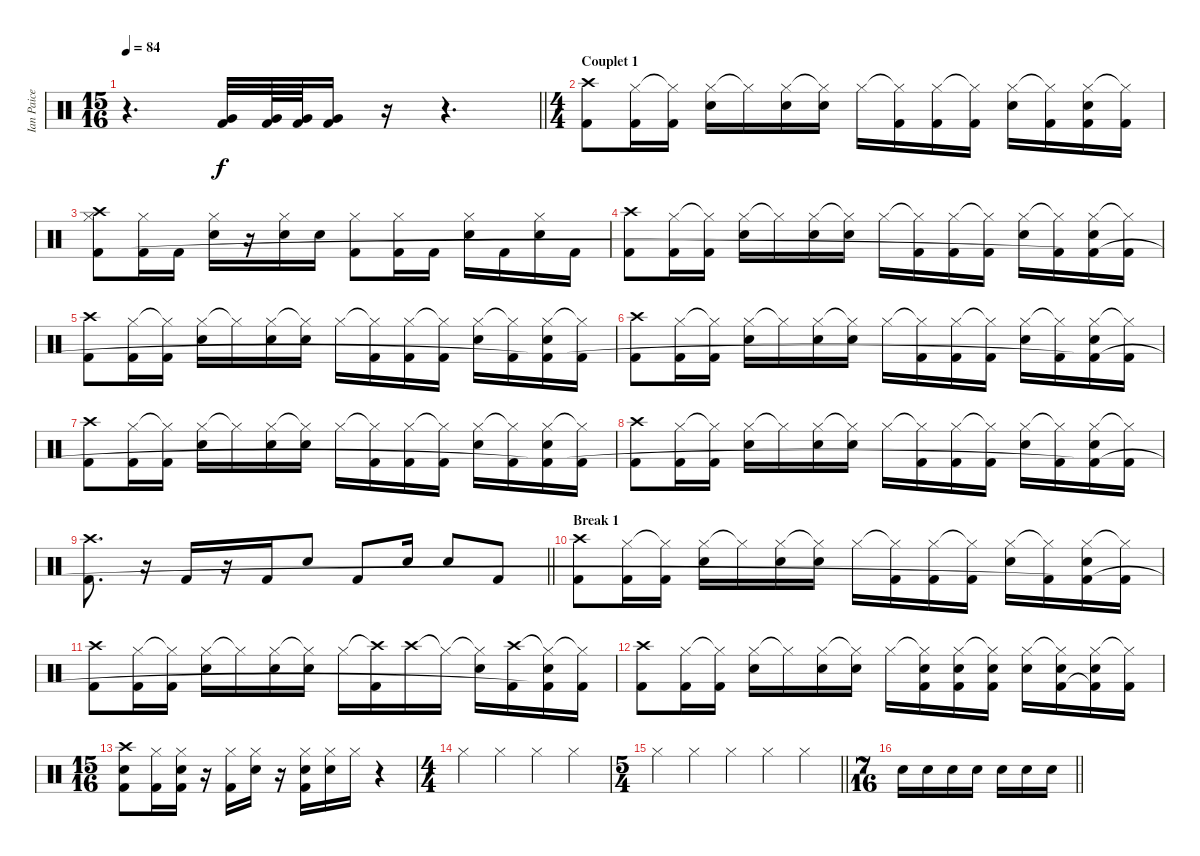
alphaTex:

\track ("Ian Paice" "Ian Paice") {instrument percussion}
\staff {score}
\articulation defaults
\ts (15 16)
\tempo 84
\clef neutral
\barLineRight lightlight
\ks c
r.4{d dy f} ("Very Low Tom (hit)" "Kick (hit) 2").32 ("Very Low Tom (hit)" "Kick (hit) 2").64 ("Very Low Tom (hit)" "Kick (hit) 2").64 ("Very Low Tom (hit)" "Kick (hit) 2").16 r.16 r.4{d} |
\ts (4 4)
\section ("" "Couplet 1")
("Crash high (hit)" "Kick (hit) 2").8 ("Hi-Hat (closed)" "Kick (hit) 2").16 ("Hi-Hat (closed)"{t} "Kick (hit) 2").16 ("Hi-Hat (closed)" "Snare (hit) 2").16 "Hi-Hat (closed)"{t}.16 ("Hi-Hat (closed)" "Snare (hit) 2").16 ("Hi-Hat (closed)"{t} "Snare (hit) 2").16 "Hi-Hat (closed)".16 ("Hi-Hat (closed)"{t} "Kick (hit) 2").16 ("Hi-Hat (closed)" "Kick (hit) 2").16 ("Hi-Hat (closed)"{t} "Kick (hit) 2").16 ("Hi-Hat (closed)" "Snare (hit) 2").16 ("Hi-Hat (closed)"{t} "Kick (hit) 2").16 ("Hi-Hat (closed)" "Snare (hit) 2" "Kick (hit) 2").16 ("Hi-Hat (closed)"{t} "Kick (hit) 2").16 |
("Hi-Hat (closed)" "Crash high (hit)" "Kick (hit) 2").8 ("Hi-Hat (closed)" "Kick (hit) 2").16 "Kick (hit) 2".16 ("Hi-Hat (closed)" "Snare (hit) 2").16 r.16 ("Hi-Hat (closed)" "Snare (hit) 2").16 "Snare (hit) 2".16 ("Hi-Hat (closed)" "Kick (hit) 2").8 ("Hi-Hat (closed)" "Kick (hit) 2").16 "Kick (hit) 2".16 ("Hi-Hat (closed)" "Snare (hit) 2").16 "Kick (hit) 2".16 ("Hi-Hat (closed)" "Snare (hit) 2").16 "Kick (hit) 2".16 |
("Crash high (hit)" "Kick (hit) 2").8 ("Hi-Hat (closed)" "Kick (hit) 2").16 ("Hi-Hat (closed)"{t} "Kick (hit) 2").16 ("Hi-Hat (closed)" "Snare (hit) 2").16 "Hi-Hat (closed)"{t}.16 ("Hi-Hat (closed)" "Snare (hit) 2").16 ("Hi-Hat (closed)"{t} "Snare (hit) 2").16 "Hi-Hat (closed)".16 ("Hi-Hat (closed)"{t} "Kick (hit) 2").16 ("Hi-Hat (closed)" "Kick (hit) 2").16 ("Hi-Hat (closed)"{t} "Kick (hit) 2").16 ("Hi-Hat (closed)" "Snare (hit) 2").16 ("Hi-Hat (closed)"{t} "Kick (hit) 2").16 ("Hi-Hat (closed)" "Snare (hit) 2" "Kick (hit) 2"{t}).16 ("Hi-Hat (closed)"{t} "Kick (hit) 2").16 |
("Crash high (hit)" "Kick (hit) 2").8 ("Hi-Hat (closed)" "Kick (hit) 2").16 ("Hi-Hat (closed)"{t} "Kick (hit) 2").16 ("Hi-Hat (closed)" "Snare (hit) 2").16 "Hi-Hat (closed)"{t}.16 ("Hi-Hat (closed)" "Snare (hit) 2").16 ("Hi-Hat (closed)"{t} "Snare (hit) 2").16 "Hi-Hat (closed)".16 ("Hi-Hat (closed)"{t} "Kick (hit) 2").16 ("Hi-Hat (closed)" "Kick (hit) 2").16 ("Hi-Hat (closed)"{t} "Kick (hit) 2").16 ("Hi-Hat (closed)" "Snare (hit) 2").16 ("Hi-Hat (closed)"{t} "Kick (hit) 2").16 ("Hi-Hat (closed)" "Snare (hit) 2" "Kick (hit) 2"{t}).16 ("Hi-Hat (closed)"{t} "Kick (hit) 2").16 |
("Crash high (hit)" "Kick (hit) 2").8 ("Hi-Hat (closed)" "Kick (hit) 2").16 ("Hi-Hat (closed)"{t} "Kick (hit) 2").16 ("Hi-Hat (closed)" "Snare (hit) 2").16 "Hi-Hat (closed)"{t}.16 ("Hi-Hat (closed)" "Snare (hit) 2").16 ("Hi-Hat (closed)"{t} "Snare (hit) 2").16 "Hi-Hat (closed)".16 ("Hi-Hat (closed)"{t} "Kick (hit) 2").16 ("Hi-Hat (closed)" "Kick (hit) 2").16 ("Hi-Hat (closed)"{t} "Kick (hit) 2").16 ("Hi-Hat (closed)" "Snare (hit) 2").16 ("Hi-Hat (closed)"{t} "Kick (hit) 2").16 ("Hi-Hat (closed)" "Snare (hit) 2" "Kick (hit) 2"{t}).16 ("Hi-Hat (closed)"{t} "Kick (hit) 2").16 |
("Crash high (hit)" "Kick (hit) 2").8 ("Hi-Hat (closed)" "Kick (hit) 2").16 ("Hi-Hat (closed)"{t} "Kick (hit) 2").16 ("Hi-Hat (closed)" "Snare (hit) 2").16 "Hi-Hat (closed)"{t}.16 ("Hi-Hat (closed)" "Snare (hit) 2").16 ("Hi-Hat (closed)"{t} "Snare (hit) 2").16 "Hi-Hat (closed)".16 ("Hi-Hat (closed)"{t} "Kick (hit) 2").16 ("Hi-Hat (closed)" "Kick (hit) 2").16 ("Hi-Hat (closed)"{t} "Kick (hit) 2").16 ("Hi-Hat (closed)" "Snare (hit) 2").16 ("Hi-Hat (closed)"{t} "Kick (hit) 2").16 ("Hi-Hat (closed)" "Snare (hit) 2" "Kick (hit) 2"{t}).16 ("Hi-Hat (closed)"{t} "Kick (hit) 2").16 |
("Crash high (hit)" "Kick (hit) 2").8 ("Hi-Hat (closed)" "Kick (hit) 2").16 ("Hi-Hat (closed)"{t} "Kick (hit) 2").16 ("Hi-Hat (closed)" "Snare (hit) 2").16 "Hi-Hat (closed)"{t}.16 ("Hi-Hat (closed)" "Snare (hit) 2").16 ("Hi-Hat (closed)"{t} "Snare (hit) 2").16 "Hi-Hat (closed)".16 ("Hi-Hat (closed)"{t} "Kick (hit) 2").16 ("Hi-Hat (closed)" "Kick (hit) 2").16 ("Hi-Hat (closed)"{t} "Kick (hit) 2").16 ("Hi-Hat (closed)" "Snare (hit) 2").16 ("Hi-Hat (closed)"{t} "Kick (hit) 2").16 ("Hi-Hat (closed)" "Snare (hit) 2" "Kick (hit) 2"{t}).16 ("Hi-Hat (closed)"{t} "Kick (hit) 2").16 |
\barLineRight lightlight
("Crash high (hit)" "Kick (hit) 2").8{d} r.16 "Kick (hit) 2".16 r.16 "Kick (hit) 2".16 "Snare (hit) 2".8 "Kick (hit) 2".8 "Snare (hit) 2".16 "Snare (hit) 2".8 "Kick (hit) 2".8 |
\section ("" "Break 1")
("Crash high (hit)" "Kick (hit) 2").8 ("Hi-Hat (closed)" "Kick (hit) 2").16 ("Hi-Hat (closed)"{t} "Kick (hit) 2").16 ("Hi-Hat (closed)" "Snare (hit) 2").16 "Hi-Hat (closed)"{t}.16 ("Hi-Hat (closed)" "Snare (hit) 2").16 ("Hi-Hat (closed)"{t} "Snare (hit) 2").16 "Hi-Hat (closed)".16 ("Hi-Hat (closed)"{t} "Kick (hit) 2").16 ("Hi-Hat (closed)" "Kick (hit) 2").16 ("Hi-Hat (closed)"{t} "Kick (hit) 2").16 ("Hi-Hat (closed)" "Snare (hit) 2").16 ("Hi-Hat (closed)"{t} "Kick (hit) 2").16 ("Hi-Hat (closed)" "Snare (hit) 2" "Kick (hit) 2"{t}).16 ("Hi-Hat (closed)"{t} "Kick (hit) 2").16 |
("Crash high (hit)" "Kick (hit) 2").8 ("Hi-Hat (closed)" "Kick (hit) 2").16 ("Hi-Hat (closed)"{t} "Kick (hit) 2").16 ("Hi-Hat (closed)" "Snare (hit) 2").16 "Hi-Hat (closed)"{t}.16 ("Hi-Hat (closed)" "Snare (hit) 2").16 ("Hi-Hat (closed)"{t} "Snare (hit) 2").16 "Hi-Hat (closed)".16 ("Crash high (hit)"{t} "Kick (hit) 2").16 "Crash high (hit)".16 "Hi-Hat (closed)"{t}.16 ("Hi-Hat (closed)"{t} "Snare (hit) 2").16 ("Crash high (hit)" "Kick (hit) 2").16 ("Hi-Hat (closed)"{t} "Snare (hit) 2" "Kick (hit) 2"{t}).16 ("Hi-Hat (closed)"{t} "Kick (hit) 2").16 |
("Crash high (hit)" "Kick (hit) 2").8 ("Hi-Hat (closed)" "Kick (hit) 2").16 ("Hi-Hat (closed)"{t} "Kick (hit) 2").16 ("Hi-Hat (closed)" "Snare (hit) 2").16 "Hi-Hat (closed)"{t}.16 ("Hi-Hat (closed)" "Snare (hit) 2").16 ("Hi-Hat (closed)"{t} "Snare (hit) 2").16 "Hi-Hat (closed)".16 ("Hi-Hat (closed)"{t} "Snare (hit) 2" "Kick (hit) 2").16 ("Hi-Hat (closed)" "Snare (hit) 2" "Kick (hit) 2").16 ("Hi-Hat (closed)"{t} "Snare (hit) 2" "Kick (hit) 2").16 ("Hi-Hat (closed)" "Snare (hit) 2").16 ("Hi-Hat (closed)"{t} "Snare (hit) 2" "Kick (hit) 2").16 ("Hi-Hat (closed)" "Snare (hit) 2" "Kick (hit) 2"{t}).16 ("Hi-Hat (closed)"{t} "Kick (hit) 2").16 |
\ts (15 16)
("Crash high (hit)" "Snare (hit) 2" "Kick (hit) 2").8 ("Hi-Hat (closed)" "Kick (hit) 2").16 ("Hi-Hat (closed)" "Snare (hit) 2" "Kick (hit) 2").16 r.16 ("Hi-Hat (closed)" "Kick (hit) 2").16 ("Hi-Hat (closed)" "Snare (hit) 2").16 r.16 ("Hi-Hat (closed)" "Snare (hit) 2" "Kick (hit) 2").16 ("Hi-Hat (closed)" "Snare (hit) 2").16 "Hi-Hat (closed)".16 r.4 |
\ts (4 4)
"Hi-Hat (closed)".4 "Hi-Hat (closed)".4 "Hi-Hat (closed)".4 "Hi-Hat (closed)".4 |
\ts (5 4)
\barLineRight lightlight "Hi-Hat (closed)".4 "Hi-Hat (closed)".4 "Hi-Hat (closed)".4 "Hi-Hat (closed)".4 "Hi-Hat (closed)".4
|
\ts (7 16)
\barLineRight lightlight "Snare (hit) 2".16 "Snare (hit) 2".16 "Snare (hit) 2".16 "Snare (hit) 2".16 "Snare (hit) 2".16 "Snare (hit) 2".16 "Snare (hit) 2".16
